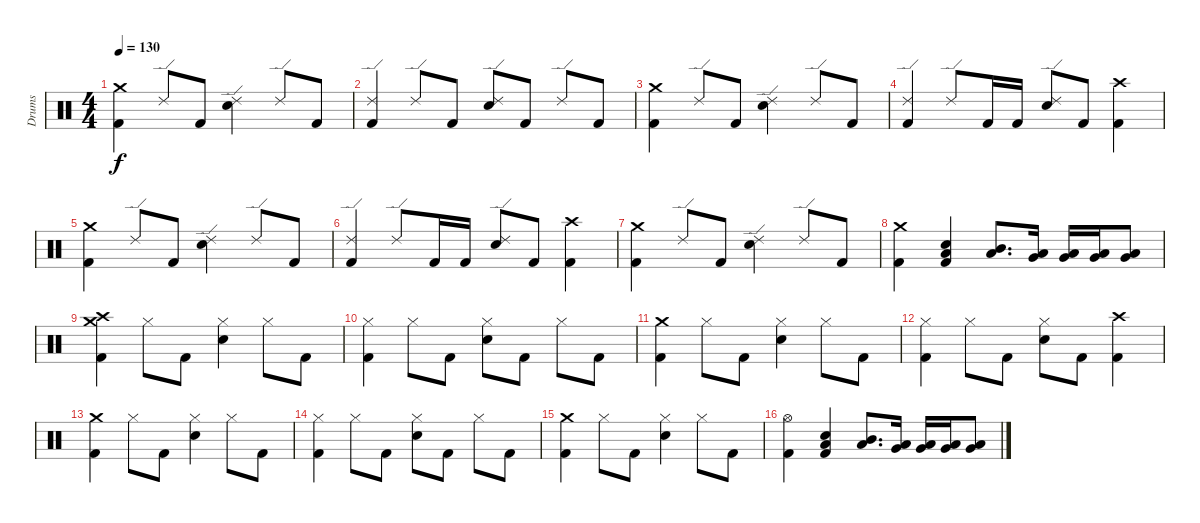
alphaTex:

\track ("Drums" "Drums") {instrument percussion}
\staff {score}
\articulation defaults
\ts (4 4)
\tempo 130
\clef neutral
\ks c
("Crash medium (hit)" "Kick (hit) 2").4{dy f} "Ride (edge) 2".8 "Kick (hit) 2".8 ("Ride (edge) 2" "Electric Snare (hit)").4 "Ride (edge) 2".8 "Kick (hit) 2".8 |
("Ride (edge) 2" "Kick (hit) 2").4 "Ride (edge) 2".8 "Kick (hit) 2".8 ("Ride (edge) 2" "Electric Snare (hit)").8 "Kick (hit) 2".8 "Ride (edge) 2".8 "Kick (hit) 2".8 |
("Crash medium (hit)" "Kick (hit) 2").4 "Ride (edge) 2".8 "Kick (hit) 2".8 ("Ride (edge) 2" "Electric Snare (hit)").4 "Ride (edge) 2".8 "Kick (hit) 2".8 |
("Ride (edge) 2" "Kick (hit) 2").4 "Ride (edge) 2".8 "Kick (hit) 2".16 "Kick (hit) 2".16 ("Ride (edge) 2" "Electric Snare (hit)").8 "Kick (hit) 2".8 ("Crash high (hit)" "Kick (hit) 2").4 |
("Crash medium (hit)" "Kick (hit) 2").4 "Ride (edge) 2".8 "Kick (hit) 2".8 ("Ride (edge) 2" "Electric Snare (hit)").4 "Ride (edge) 2".8 "Kick (hit) 2".8 |
("Ride (edge) 2" "Kick (hit) 2").4 "Ride (edge) 2".8 "Kick (hit) 2".16 "Kick (hit) 2".16 ("Ride (edge) 2" "Electric Snare (hit)").8 "Kick (hit) 2".8 ("Crash high (hit)" "Kick (hit) 2").4 |
("Crash medium (hit)" "Kick (hit) 2").4 "Ride (edge) 2".8 "Kick (hit) 2".8 ("Ride (edge) 2" "Electric Snare (hit)").4 "Ride (edge) 2".8 "Kick (hit) 2".8 |
("Crash medium (hit)" "Kick (hit) 2").4 ("Low Floor Tom (hit)" "Electric Snare (hit)" "Kick (hit) 2").4 ("Low Tom (hit)" "Mid Tom (hit)").8{d} ("Very Low Tom (hit)" "Low Tom (hit)").16 ("Very Low Tom (hit)" "Low Tom (hit)").16 ("Very Low Tom (hit)" "Low Tom (hit)").16 ("Low Floor Tom (hit)" "Very Low Tom (hit)").8 |
("Crash medium (hit)" "Crash high (hit)" "Kick (hit) 2").4 "Hi-Hat (closed)".8 "Kick (hit) 2".8 ("Hi-Hat (closed)" "Electric Snare (hit)").4 "Hi-Hat (closed)".8 "Kick (hit) 2".8 |
("Hi-Hat (closed)" "Kick (hit) 2").4 "Hi-Hat (closed)".8 "Kick (hit) 2".8 ("Hi-Hat (closed)" "Electric Snare (hit)").8 "Kick (hit) 2".8 "Hi-Hat (closed)".8 "Kick (hit) 2".8 |
("Crash medium (hit)" "Kick (hit) 2").4 "Hi-Hat (closed)".8 "Kick (hit) 2".8 ("Hi-Hat (closed)" "Electric Snare (hit)").4 "Hi-Hat (closed)".8 "Kick (hit) 2".8 |
("Hi-Hat (closed)" "Kick (hit) 2").4 "Hi-Hat (closed)".8 "Kick (hit) 2".8 ("Hi-Hat (closed)" "Electric Snare (hit)").8 "Kick (hit) 2".8 ("Crash high (hit)" "Kick (hit) 2").4 |
("Crash medium (hit)" "Kick (hit) 2").4 "Hi-Hat (closed)".8 "Kick (hit) 2".8 ("Hi-Hat (closed)" "Electric Snare (hit)").4 "Hi-Hat (closed)".8 "Kick (hit) 2".8 |
("Hi-Hat (closed)" "Kick (hit) 2").4 "Hi-Hat (closed)".8 "Kick (hit) 2".8 ("Hi-Hat (closed)" "Electric Snare (hit)").8 "Kick (hit) 2".8 "Hi-Hat (closed)".8 "Kick (hit) 2".8 |
("Crash medium (hit)" "Kick (hit) 2").4 "Hi-Hat (closed)".8 "Kick (hit) 2".8 ("Hi-Hat (closed)" "Electric Snare (hit)").4 "Hi-Hat (closed)".8 "Kick (hit) 2".8 |
("Hi-Hat (open)" "Kick (hit) 2").4 ("Low Floor Tom (hit)" "Electric Snare (hit)" "Kick (hit) 2").4 ("Low Tom (hit)" "Mid Tom (hit)").8{d} ("Very Low Tom (hit)" "Low Tom (hit)").16 ("Very Low Tom (hit)" "Low Tom (hit)").16 ("Very Low Tom (hit)" "Low Tom (hit)").16 ("Low Floor Tom (hit)" "Very Low Tom (hit)").8
